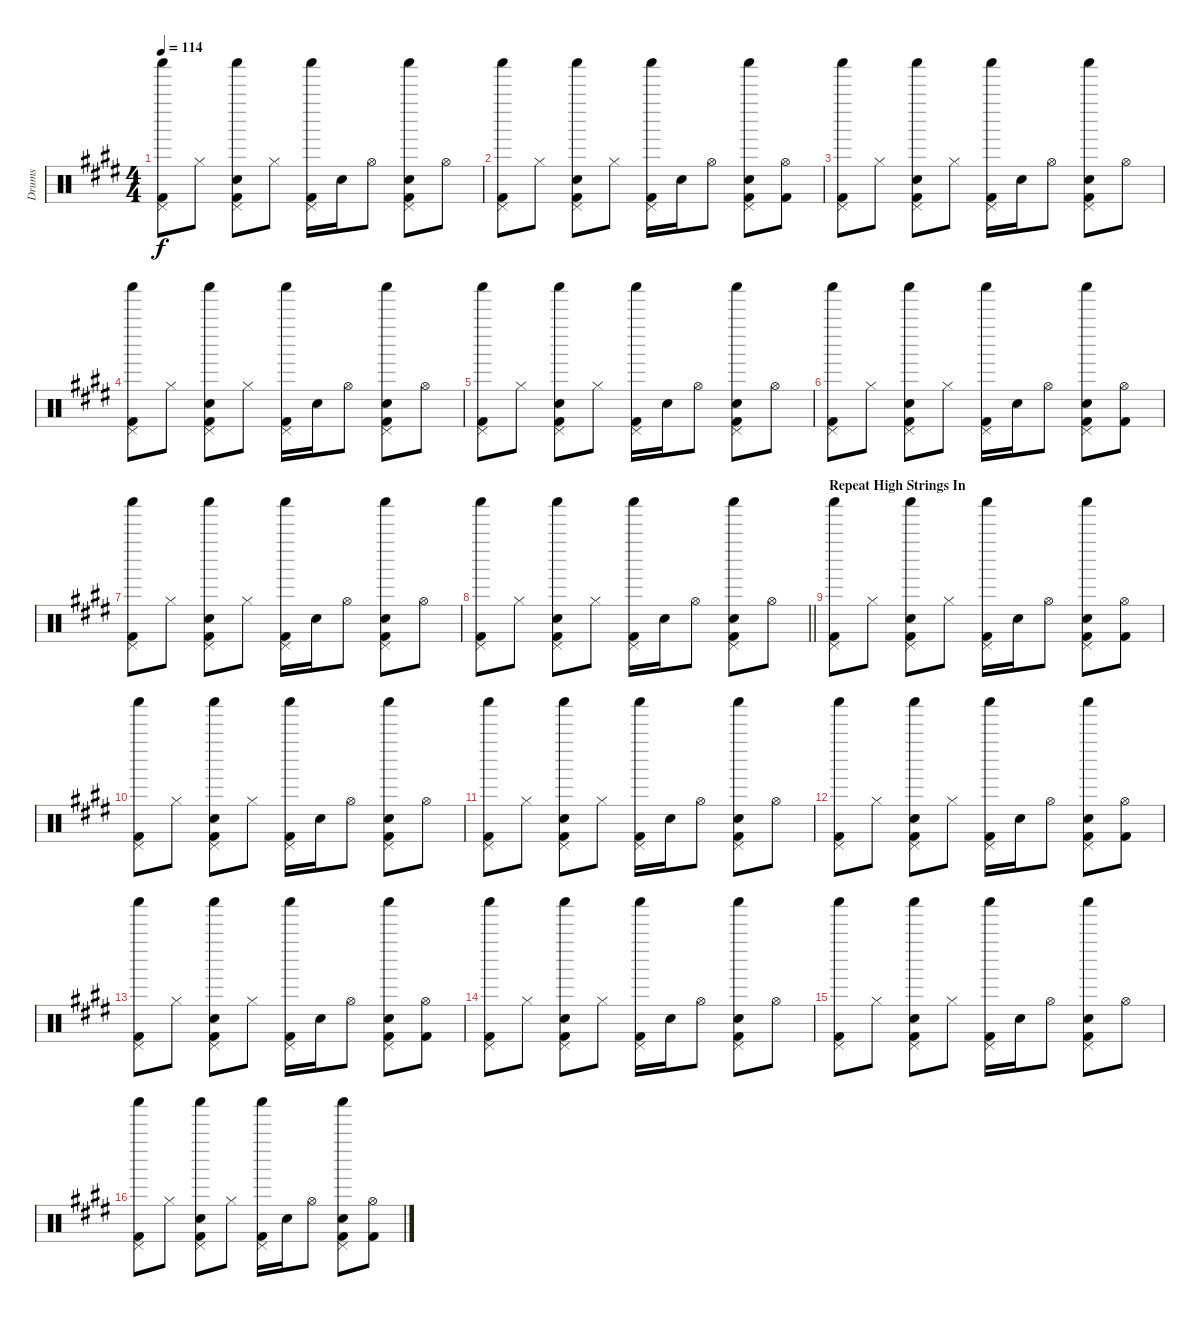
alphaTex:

\track ("Drums" "Drums") {instrument percussion}
\staff {score}
\articulation defaults
\ts (4 4)
\tempo 114
\clef neutral
\ks e
("Pedal Hi-Hat (hit)" "Shaker (hit)" "Kick (hit) 2").8{dy f} "Hi-Hat (closed)".8 ("Pedal Hi-Hat (hit)" "Shaker (hit)" "Electric Snare (hit)" "Kick (hit) 2").8 "Hi-Hat (closed)".8 ("Pedal Hi-Hat (hit)" "Shaker (hit)" "Kick (hit) 2").16 "Electric Snare (hit)".16 "Hi-Hat (open)".8 ("Pedal Hi-Hat (hit)" "Shaker (hit)" "Electric Snare (hit)" "Kick (hit) 2").8 "Hi-Hat (open)".8 |
("Pedal Hi-Hat (hit)" "Shaker (hit)" "Kick (hit) 2").8 "Hi-Hat (closed)".8 ("Pedal Hi-Hat (hit)" "Shaker (hit)" "Electric Snare (hit)" "Kick (hit) 2").8 "Hi-Hat (closed)".8 ("Pedal Hi-Hat (hit)" "Shaker (hit)" "Kick (hit) 2").16 "Electric Snare (hit)".16 "Hi-Hat (open)".8 ("Pedal Hi-Hat (hit)" "Shaker (hit)" "Electric Snare (hit)" "Kick (hit) 2").8 ("Hi-Hat (open)" "Kick (hit) 2").8 |
("Pedal Hi-Hat (hit)" "Shaker (hit)" "Kick (hit) 2").8 "Hi-Hat (closed)".8 ("Pedal Hi-Hat (hit)" "Shaker (hit)" "Electric Snare (hit)" "Kick (hit) 2").8 "Hi-Hat (closed)".8 ("Pedal Hi-Hat (hit)" "Shaker (hit)" "Kick (hit) 2").16 "Electric Snare (hit)".16 "Hi-Hat (open)".8 ("Pedal Hi-Hat (hit)" "Shaker (hit)" "Electric Snare (hit)" "Kick (hit) 2").8 "Hi-Hat (open)".8 |
("Pedal Hi-Hat (hit)" "Shaker (hit)" "Kick (hit) 2").8 "Hi-Hat (closed)".8 ("Pedal Hi-Hat (hit)" "Shaker (hit)" "Electric Snare (hit)" "Kick (hit) 2").8 "Hi-Hat (closed)".8 ("Pedal Hi-Hat (hit)" "Shaker (hit)" "Kick (hit) 2").16 "Electric Snare (hit)".16 "Hi-Hat (open)".8 ("Pedal Hi-Hat (hit)" "Shaker (hit)" "Electric Snare (hit)" "Kick (hit) 2").8 "Hi-Hat (open)".8 |
("Pedal Hi-Hat (hit)" "Shaker (hit)" "Kick (hit) 2").8 "Hi-Hat (closed)".8 ("Pedal Hi-Hat (hit)" "Shaker (hit)" "Electric Snare (hit)" "Kick (hit) 2").8 "Hi-Hat (closed)".8 ("Pedal Hi-Hat (hit)" "Shaker (hit)" "Kick (hit) 2").16 "Electric Snare (hit)".16 "Hi-Hat (open)".8 ("Pedal Hi-Hat (hit)" "Shaker (hit)" "Electric Snare (hit)" "Kick (hit) 2").8 "Hi-Hat (open)".8 |
("Pedal Hi-Hat (hit)" "Shaker (hit)" "Kick (hit) 2").8 "Hi-Hat (closed)".8 ("Pedal Hi-Hat (hit)" "Shaker (hit)" "Electric Snare (hit)" "Kick (hit) 2").8 "Hi-Hat (closed)".8 ("Pedal Hi-Hat (hit)" "Shaker (hit)" "Kick (hit) 2").16 "Electric Snare (hit)".16 "Hi-Hat (open)".8 ("Pedal Hi-Hat (hit)" "Shaker (hit)" "Electric Snare (hit)" "Kick (hit) 2").8 ("Hi-Hat (open)" "Kick (hit) 2").8 |
("Pedal Hi-Hat (hit)" "Shaker (hit)" "Kick (hit) 2").8 "Hi-Hat (closed)".8 ("Pedal Hi-Hat (hit)" "Shaker (hit)" "Electric Snare (hit)" "Kick (hit) 2").8 "Hi-Hat (closed)".8 ("Pedal Hi-Hat (hit)" "Shaker (hit)" "Kick (hit) 2").16 "Electric Snare (hit)".16 "Hi-Hat (open)".8 ("Pedal Hi-Hat (hit)" "Shaker (hit)" "Electric Snare (hit)" "Kick (hit) 2").8 "Hi-Hat (open)".8 |
\barLineRight lightlight
("Pedal Hi-Hat (hit)" "Shaker (hit)" "Kick (hit) 2").8 "Hi-Hat (closed)".8 ("Pedal Hi-Hat (hit)" "Shaker (hit)" "Electric Snare (hit)" "Kick (hit) 2").8 "Hi-Hat (closed)".8 ("Pedal Hi-Hat (hit)" "Shaker (hit)" "Kick (hit) 2").16 "Electric Snare (hit)".16 "Hi-Hat (open)".8 ("Pedal Hi-Hat (hit)" "Shaker (hit)" "Electric Snare (hit)" "Kick (hit) 2").8 "Hi-Hat (open)".8 |
\section ("" "Repeat High Strings In")
("Pedal Hi-Hat (hit)" "Shaker (hit)" "Kick (hit) 2").8 "Hi-Hat (closed)".8 ("Pedal Hi-Hat (hit)" "Shaker (hit)" "Electric Snare (hit)" "Kick (hit) 2").8 "Hi-Hat (closed)".8 ("Pedal Hi-Hat (hit)" "Shaker (hit)" "Kick (hit) 2").16 "Electric Snare (hit)".16 "Hi-Hat (open)".8 ("Pedal Hi-Hat (hit)" "Shaker (hit)" "Electric Snare (hit)" "Kick (hit) 2").8 ("Hi-Hat (open)" "Kick (hit) 2").8 |
("Pedal Hi-Hat (hit)" "Shaker (hit)" "Kick (hit) 2").8 "Hi-Hat (closed)".8 ("Pedal Hi-Hat (hit)" "Shaker (hit)" "Electric Snare (hit)" "Kick (hit) 2").8 "Hi-Hat (closed)".8 ("Pedal Hi-Hat (hit)" "Shaker (hit)" "Kick (hit) 2").16 "Electric Snare (hit)".16 "Hi-Hat (open)".8 ("Pedal Hi-Hat (hit)" "Shaker (hit)" "Electric Snare (hit)" "Kick (hit) 2").8 "Hi-Hat (open)".8 |
("Pedal Hi-Hat (hit)" "Shaker (hit)" "Kick (hit) 2").8 "Hi-Hat (closed)".8 ("Pedal Hi-Hat (hit)" "Shaker (hit)" "Electric Snare (hit)" "Kick (hit) 2").8 "Hi-Hat (closed)".8 ("Pedal Hi-Hat (hit)" "Shaker (hit)" "Kick (hit) 2").16 "Electric Snare (hit)".16 "Hi-Hat (open)".8 ("Pedal Hi-Hat (hit)" "Shaker (hit)" "Electric Snare (hit)" "Kick (hit) 2").8 "Hi-Hat (open)".8 |
("Pedal Hi-Hat (hit)" "Shaker (hit)" "Kick (hit) 2").8 "Hi-Hat (closed)".8 ("Pedal Hi-Hat (hit)" "Shaker (hit)" "Electric Snare (hit)" "Kick (hit) 2").8 "Hi-Hat (closed)".8 ("Pedal Hi-Hat (hit)" "Shaker (hit)" "Kick (hit) 2").16 "Electric Snare (hit)".16 "Hi-Hat (open)".8 ("Pedal Hi-Hat (hit)" "Shaker (hit)" "Electric Snare (hit)" "Kick (hit) 2").8 ("Hi-Hat (open)" "Kick (hit) 2").8 |
("Pedal Hi-Hat (hit)" "Shaker (hit)" "Kick (hit) 2").8 "Hi-Hat (closed)".8 ("Pedal Hi-Hat (hit)" "Shaker (hit)" "Electric Snare (hit)" "Kick (hit) 2").8 "Hi-Hat (closed)".8 ("Pedal Hi-Hat (hit)" "Shaker (hit)" "Kick (hit) 2").16 "Electric Snare (hit)".16 "Hi-Hat (open)".8 ("Pedal Hi-Hat (hit)" "Shaker (hit)" "Electric Snare (hit)" "Kick (hit) 2").8 ("Hi-Hat (open)" "Kick (hit) 2").8 |
("Pedal Hi-Hat (hit)" "Shaker (hit)" "Kick (hit) 2").8 "Hi-Hat (closed)".8 ("Pedal Hi-Hat (hit)" "Shaker (hit)" "Electric Snare (hit)" "Kick (hit) 2").8 "Hi-Hat (closed)".8 ("Pedal Hi-Hat (hit)" "Shaker (hit)" "Kick (hit) 2").16 "Electric Snare (hit)".16 "Hi-Hat (open)".8 ("Pedal Hi-Hat (hit)" "Shaker (hit)" "Electric Snare (hit)" "Kick (hit) 2").8 "Hi-Hat (open)".8 |
("Pedal Hi-Hat (hit)" "Shaker (hit)" "Kick (hit) 2").8 "Hi-Hat (closed)".8 ("Pedal Hi-Hat (hit)" "Shaker (hit)" "Electric Snare (hit)" "Kick (hit) 2").8 "Hi-Hat (closed)".8 ("Pedal Hi-Hat (hit)" "Shaker (hit)" "Kick (hit) 2").16 "Electric Snare (hit)".16 "Hi-Hat (open)".8 ("Pedal Hi-Hat (hit)" "Shaker (hit)" "Electric Snare (hit)" "Kick (hit) 2").8 "Hi-Hat (open)".8 |
("Pedal Hi-Hat (hit)" "Shaker (hit)" "Kick (hit) 2").8 "Hi-Hat (closed)".8 ("Pedal Hi-Hat (hit)" "Shaker (hit)" "Electric Snare (hit)" "Kick (hit) 2").8 "Hi-Hat (closed)".8 ("Pedal Hi-Hat (hit)" "Shaker (hit)" "Kick (hit) 2").16 "Electric Snare (hit)".16 "Hi-Hat (open)".8 ("Pedal Hi-Hat (hit)" "Shaker (hit)" "Electric Snare (hit)" "Kick (hit) 2").8 ("Hi-Hat (open)" "Kick (hit) 2").8
